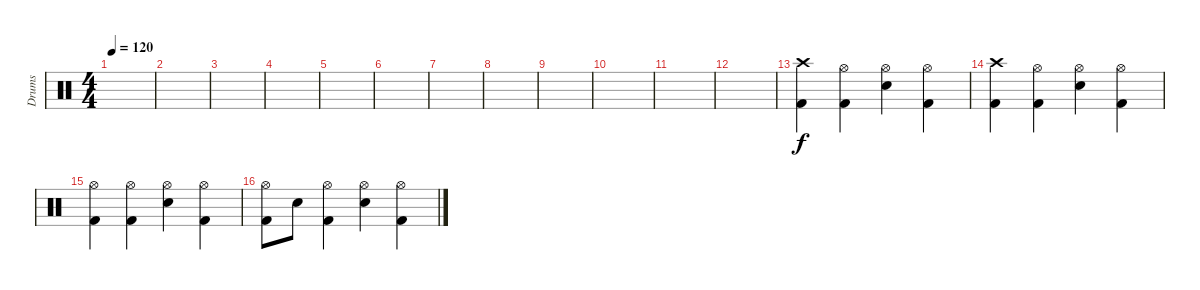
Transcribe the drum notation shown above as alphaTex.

\track ("Drums" "Drums") {instrument percussion}
\staff {score}
\articulation defaults
\ts (4 4)
\tempo 120
\clef neutral
\ks c
|
|
|
|
|
|
|
|
|
|
|
|
("Crash high (hit)" "Kick (hit) 2").4 ("Hi-Hat (open)" "Kick (hit) 2").4 ("Hi-Hat (open)" "Snare (hit) 2").4 ("Hi-Hat (open)" "Kick (hit) 2").4 |
("Crash high (hit)" "Kick (hit) 2").4 ("Hi-Hat (open)" "Kick (hit) 2").4 ("Hi-Hat (open)" "Snare (hit) 2").4 ("Hi-Hat (open)" "Kick (hit) 2").4 |
("Hi-Hat (open)" "Kick (hit) 2").4 ("Hi-Hat (open)" "Kick (hit) 2").4 ("Hi-Hat (open)" "Snare (hit) 2").4 ("Hi-Hat (open)" "Kick (hit) 2").4 |
("Hi-Hat (open)" "Kick (hit) 2").8 "Snare (hit) 2".8 ("Hi-Hat (open)" "Kick (hit) 2").4 ("Hi-Hat (open)" "Snare (hit) 2").4 ("Hi-Hat (open)" "Kick (hit) 2").4
